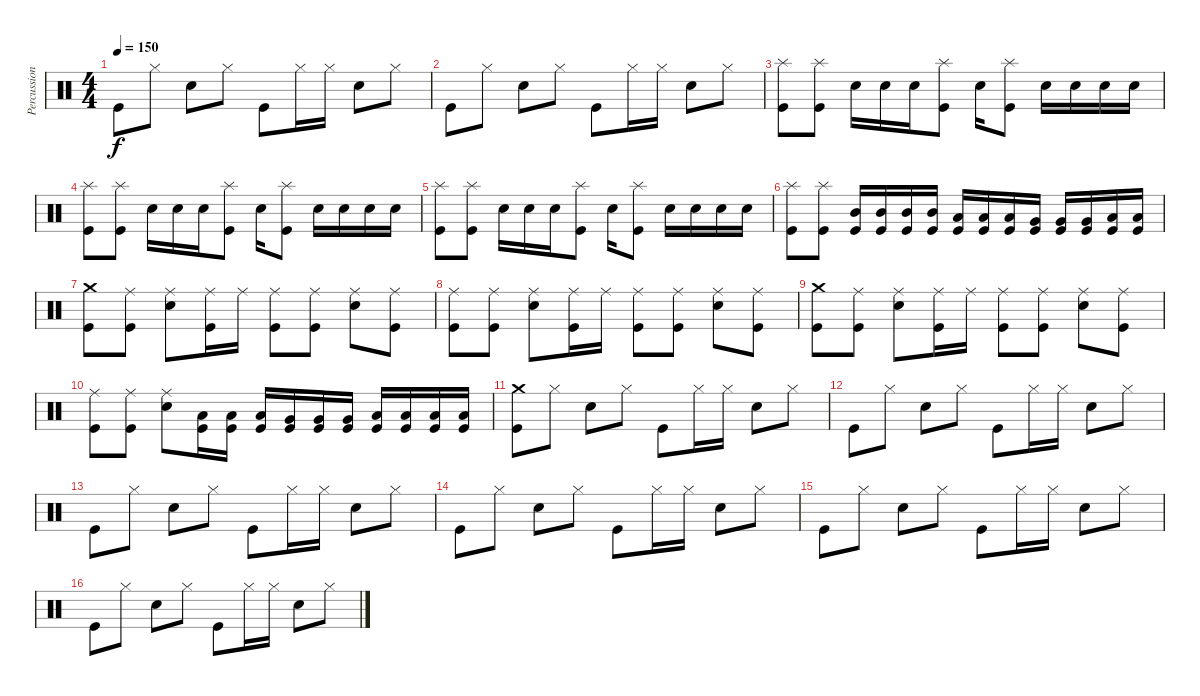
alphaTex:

\track ("Percussion" "Percussion") {instrument percussion}
\staff {score}
\articulation defaults
\ts (4 4)
\tempo 150
\clef neutral
\ks c "Kick (hit)".8{dy f} "Hi-Hat (closed)".8 "Snare (hit) 2".8 "Hi-Hat (closed)".8 "Kick (hit)".8 "Hi-Hat (closed)".16 "Hi-Hat (closed)".16 "Snare (hit) 2".8 "Hi-Hat (closed)".8
|
"Kick (hit)".8 "Hi-Hat (closed)".8 "Snare (hit) 2".8 "Hi-Hat (closed)".8 "Kick (hit)".8 "Hi-Hat (closed)".16 "Hi-Hat (closed)".16 "Snare (hit) 2".8 "Hi-Hat (closed)".8 |
("Splash (hit)" "Kick (hit)").8 ("Splash (hit)" "Kick (hit)").8 "Snare (hit) 2".16 "Snare (hit) 2".16 "Snare (hit) 2".16 ("Splash (hit)" "Kick (hit)").8 "Snare (hit) 2".16 ("Splash (hit)" "Kick (hit)").8 "Snare (hit) 2".16 "Snare (hit) 2".16 "Snare (hit) 2".16 "Snare (hit) 2".16 |
("Splash (hit)" "Kick (hit)").8 ("Splash (hit)" "Kick (hit)").8 "Snare (hit) 2".16 "Snare (hit) 2".16 "Snare (hit) 2".16 ("Splash (hit)" "Kick (hit)").8 "Snare (hit) 2".16 ("Splash (hit)" "Kick (hit)").8 "Snare (hit) 2".16 "Snare (hit) 2".16 "Snare (hit) 2".16 "Snare (hit) 2".16 |
("Splash (hit)" "Kick (hit)").8 ("Splash (hit)" "Kick (hit)").8 "Snare (hit) 2".16 "Snare (hit) 2".16 "Snare (hit) 2".16 ("Splash (hit)" "Kick (hit)").8 "Snare (hit) 2".16 ("Splash (hit)" "Kick (hit)").8 "Snare (hit) 2".16 "Snare (hit) 2".16 "Snare (hit) 2".16 "Snare (hit) 2".16 |
("Splash (hit)" "Kick (hit)").8 ("Splash (hit)" "Kick (hit)").8 ("Mid Tom (hit)" "Kick (hit)").16 ("Mid Tom (hit)" "Kick (hit)").16 ("Mid Tom (hit)" "Kick (hit)").16 ("Mid Tom (hit)" "Kick (hit)").16 ("Low Tom (hit)" "Kick (hit)").16 ("Low Tom (hit)" "Kick (hit)").16 ("Low Tom (hit)" "Kick (hit)").16 ("Very Low Tom (hit)" "Kick (hit)").16 ("Very Low Tom (hit)" "Kick (hit)").16 ("Very Low Tom (hit)" "Kick (hit)").16 ("Low Floor Tom (hit)" "Kick (hit)").16 ("Low Floor Tom (hit)" "Kick (hit)").16 |
("Crash medium (hit)" "Kick (hit)").8 ("Ride (middle)" "Kick (hit)").8 ("Ride (middle)" "Snare (hit) 2").8 ("Ride (middle)" "Kick (hit)").16 "Ride (middle)".16 ("Ride (middle)" "Kick (hit)").8 ("Ride (middle)" "Kick (hit)").8 ("Ride (middle)" "Snare (hit) 2").8 ("Ride (middle)" "Kick (hit)").8 |
("Ride (middle)" "Kick (hit)").8 ("Ride (middle)" "Kick (hit)").8 ("Ride (middle)" "Snare (hit) 2").8 ("Ride (middle)" "Kick (hit)").16 "Ride (middle)".16 ("Ride (middle)" "Kick (hit)").8 ("Ride (middle)" "Kick (hit)").8 ("Ride (middle)" "Snare (hit) 2").8 ("Ride (middle)" "Kick (hit)").8 |
("Crash medium (hit)" "Kick (hit)").8 ("Ride (middle)" "Kick (hit)").8 ("Ride (middle)" "Snare (hit) 2").8 ("Ride (middle)" "Kick (hit)").16 "Ride (middle)".16 ("Ride (middle)" "Kick (hit)").8 ("Ride (middle)" "Kick (hit)").8 ("Ride (middle)" "Snare (hit) 2").8 ("Ride (middle)" "Kick (hit)").8 |
("Ride (middle)" "Kick (hit)").8 ("Ride (middle)" "Kick (hit)").8 ("Ride (middle)" "Snare (hit) 2").8 ("Low Tom (hit)" "Kick (hit)").16 ("Low Tom (hit)" "Kick (hit)").16 ("Low Tom (hit)" "Kick (hit)").16 ("Very Low Tom (hit)" "Kick (hit)").16 ("Very Low Tom (hit)" "Kick (hit)").16 ("Very Low Tom (hit)" "Kick (hit)").16 ("Low Floor Tom (hit)" "Kick (hit)").16 ("Low Floor Tom (hit)" "Kick (hit)").16 ("Low Floor Tom (hit)" "Kick (hit)").16 ("Low Floor Tom (hit)" "Kick (hit)").16 |
("Crash medium (hit)" "Kick (hit)").8 "Hi-Hat (closed)".8 "Snare (hit) 2".8 "Hi-Hat (closed)".8 "Kick (hit)".8 "Hi-Hat (closed)".16 "Hi-Hat (closed)".16 "Snare (hit) 2".8 "Hi-Hat (closed)".8 |
"Kick (hit)".8 "Hi-Hat (closed)".8 "Snare (hit) 2".8 "Hi-Hat (closed)".8 "Kick (hit)".8 "Hi-Hat (closed)".16 "Hi-Hat (closed)".16 "Snare (hit) 2".8 "Hi-Hat (closed)".8 |
"Kick (hit)".8 "Hi-Hat (closed)".8 "Snare (hit) 2".8 "Hi-Hat (closed)".8 "Kick (hit)".8 "Hi-Hat (closed)".16 "Hi-Hat (closed)".16 "Snare (hit) 2".8 "Hi-Hat (closed)".8 |
"Kick (hit)".8 "Hi-Hat (closed)".8 "Snare (hit) 2".8 "Hi-Hat (closed)".8 "Kick (hit)".8 "Hi-Hat (closed)".16 "Hi-Hat (closed)".16 "Snare (hit) 2".8 "Hi-Hat (closed)".8 |
"Kick (hit)".8 "Hi-Hat (closed)".8 "Snare (hit) 2".8 "Hi-Hat (closed)".8 "Kick (hit)".8 "Hi-Hat (closed)".16 "Hi-Hat (closed)".16 "Snare (hit) 2".8 "Hi-Hat (closed)".8 |
"Kick (hit)".8 "Hi-Hat (closed)".8 "Snare (hit) 2".8 "Hi-Hat (closed)".8 "Kick (hit)".8 "Hi-Hat (closed)".16 "Hi-Hat (closed)".16 "Snare (hit) 2".8 "Hi-Hat (closed)".8
